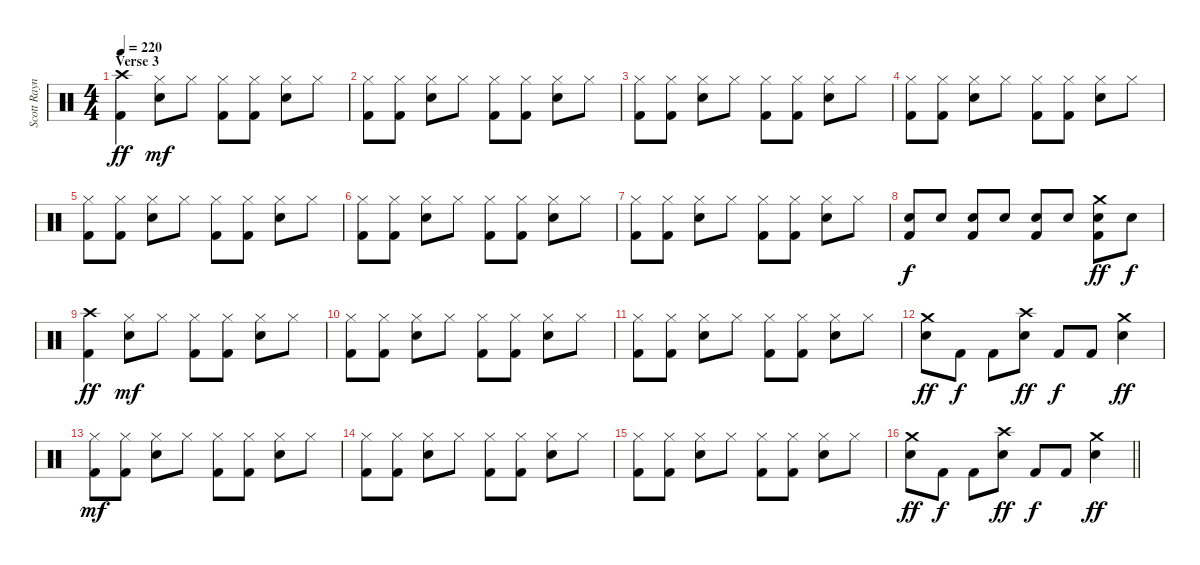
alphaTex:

\track ("Scott Raynor - Drums" "Scott Rayn") {instrument percussion}
\staff {score}
\articulation defaults
\ts (4 4)
\section ("" "Verse 3")
\tempo 220
\clef neutral
\ks c
("Crash high (hit)" "Kick (hit) 2").4{dy ff} ("Hi-Hat (closed)" "Electric Snare (hit)").8{dy mf} "Hi-Hat (closed)".8 ("Hi-Hat (closed)" "Kick (hit) 2").8 ("Hi-Hat (closed)" "Kick (hit) 2").8 ("Hi-Hat (closed)" "Electric Snare (hit)").8 "Hi-Hat (closed)".8 |
("Hi-Hat (closed)" "Kick (hit) 2").8 ("Hi-Hat (closed)" "Kick (hit) 2").8 ("Hi-Hat (closed)" "Electric Snare (hit)").8 "Hi-Hat (closed)".8 ("Hi-Hat (closed)" "Kick (hit) 2").8 ("Hi-Hat (closed)" "Kick (hit) 2").8 ("Hi-Hat (closed)" "Electric Snare (hit)").8 "Hi-Hat (closed)".8 |
("Hi-Hat (closed)" "Kick (hit) 2").8 ("Hi-Hat (closed)" "Kick (hit) 2").8 ("Hi-Hat (closed)" "Electric Snare (hit)").8 "Hi-Hat (closed)".8 ("Hi-Hat (closed)" "Kick (hit) 2").8 ("Hi-Hat (closed)" "Kick (hit) 2").8 ("Hi-Hat (closed)" "Electric Snare (hit)").8 "Hi-Hat (closed)".8 |
("Hi-Hat (closed)" "Kick (hit) 2").8 ("Hi-Hat (closed)" "Kick (hit) 2").8 ("Hi-Hat (closed)" "Electric Snare (hit)").8 "Hi-Hat (closed)".8 ("Hi-Hat (closed)" "Kick (hit) 2").8 ("Hi-Hat (closed)" "Kick (hit) 2").8 ("Hi-Hat (closed)" "Electric Snare (hit)").8 "Hi-Hat (closed)".8 |
("Hi-Hat (closed)" "Kick (hit) 2").8 ("Hi-Hat (closed)" "Kick (hit) 2").8 ("Hi-Hat (closed)" "Electric Snare (hit)").8 "Hi-Hat (closed)".8 ("Hi-Hat (closed)" "Kick (hit) 2").8 ("Hi-Hat (closed)" "Kick (hit) 2").8 ("Hi-Hat (closed)" "Electric Snare (hit)").8 "Hi-Hat (closed)".8 |
("Hi-Hat (closed)" "Kick (hit) 2").8 ("Hi-Hat (closed)" "Kick (hit) 2").8 ("Hi-Hat (closed)" "Electric Snare (hit)").8 "Hi-Hat (closed)".8 ("Hi-Hat (closed)" "Kick (hit) 2").8 ("Hi-Hat (closed)" "Kick (hit) 2").8 ("Hi-Hat (closed)" "Electric Snare (hit)").8 "Hi-Hat (closed)".8 |
("Hi-Hat (closed)" "Kick (hit) 2").8 ("Hi-Hat (closed)" "Kick (hit) 2").8 ("Hi-Hat (closed)" "Electric Snare (hit)").8 "Hi-Hat (closed)".8 ("Hi-Hat (closed)" "Kick (hit) 2").8 ("Hi-Hat (closed)" "Kick (hit) 2").8 ("Hi-Hat (closed)" "Electric Snare (hit)").8 "Hi-Hat (closed)".8 |
("Electric Snare (hit)" "Kick (hit) 2").8{dy f} "Electric Snare (hit)".8 ("Electric Snare (hit)" "Kick (hit) 2").8 "Electric Snare (hit)".8 ("Electric Snare (hit)" "Kick (hit) 2").8 "Electric Snare (hit)".8 ("Crash medium (hit)" "Electric Snare (hit)" "Kick (hit) 2").8{dy ff} "Electric Snare (hit)".8{dy f} |
("Crash high (hit)" "Kick (hit) 2").4{dy ff} ("Hi-Hat (closed)" "Electric Snare (hit)").8{dy mf} "Hi-Hat (closed)".8 ("Hi-Hat (closed)" "Kick (hit) 2").8 ("Hi-Hat (closed)" "Kick (hit) 2").8 ("Hi-Hat (closed)" "Electric Snare (hit)").8 "Hi-Hat (closed)".8 |
("Hi-Hat (closed)" "Kick (hit) 2").8 ("Hi-Hat (closed)" "Kick (hit) 2").8 ("Hi-Hat (closed)" "Electric Snare (hit)").8 "Hi-Hat (closed)".8 ("Hi-Hat (closed)" "Kick (hit) 2").8 ("Hi-Hat (closed)" "Kick (hit) 2").8 ("Hi-Hat (closed)" "Electric Snare (hit)").8 "Hi-Hat (closed)".8 |
("Hi-Hat (closed)" "Kick (hit) 2").8 ("Hi-Hat (closed)" "Kick (hit) 2").8 ("Hi-Hat (closed)" "Electric Snare (hit)").8 "Hi-Hat (closed)".8 ("Hi-Hat (closed)" "Kick (hit) 2").8 ("Hi-Hat (closed)" "Kick (hit) 2").8 ("Hi-Hat (closed)" "Electric Snare (hit)").8 "Hi-Hat (closed)".8 |
("Crash medium (hit)" "Electric Snare (hit)").8{dy ff} "Kick (hit) 2".8{dy f} "Kick (hit) 2".8 ("Crash high (hit)" "Electric Snare (hit)").8{dy ff} "Kick (hit) 2".8{dy f} "Kick (hit) 2".8 ("Crash medium (hit)" "Electric Snare (hit)").4{dy ff} |
("Hi-Hat (closed)" "Kick (hit) 2").8{dy mf} ("Hi-Hat (closed)" "Kick (hit) 2").8 ("Hi-Hat (closed)" "Electric Snare (hit)").8 "Hi-Hat (closed)".8 ("Hi-Hat (closed)" "Kick (hit) 2").8 ("Hi-Hat (closed)" "Kick (hit) 2").8 ("Hi-Hat (closed)" "Electric Snare (hit)").8 "Hi-Hat (closed)".8 |
("Hi-Hat (closed)" "Kick (hit) 2").8 ("Hi-Hat (closed)" "Kick (hit) 2").8 ("Hi-Hat (closed)" "Electric Snare (hit)").8 "Hi-Hat (closed)".8 ("Hi-Hat (closed)" "Kick (hit) 2").8 ("Hi-Hat (closed)" "Kick (hit) 2").8 ("Hi-Hat (closed)" "Electric Snare (hit)").8 "Hi-Hat (closed)".8 |
("Hi-Hat (closed)" "Kick (hit) 2").8 ("Hi-Hat (closed)" "Kick (hit) 2").8 ("Hi-Hat (closed)" "Electric Snare (hit)").8 "Hi-Hat (closed)".8 ("Hi-Hat (closed)" "Kick (hit) 2").8 ("Hi-Hat (closed)" "Kick (hit) 2").8 ("Hi-Hat (closed)" "Electric Snare (hit)").8 "Hi-Hat (closed)".8 |
\barLineRight lightlight
("Crash medium (hit)" "Electric Snare (hit)").8{dy ff} "Kick (hit) 2".8{dy f} "Kick (hit) 2".8 ("Crash high (hit)" "Electric Snare (hit)").8{dy ff} "Kick (hit) 2".8{dy f} "Kick (hit) 2".8 ("Crash medium (hit)" "Electric Snare (hit)").4{dy ff}
